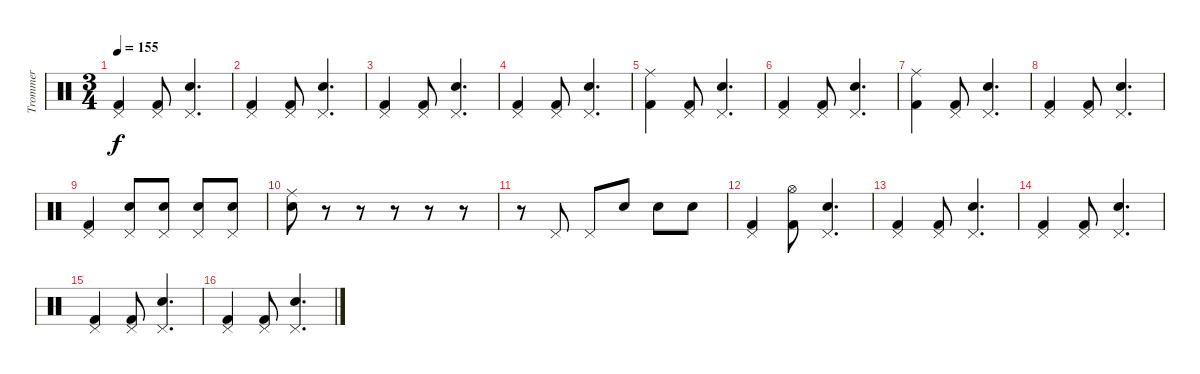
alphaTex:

\track ("Trommer" "Trommer") {instrument percussion}
\staff {score}
\articulation defaults
\ts (3 4)
\tempo 155
\clef neutral
\ks c
("Kick (hit) 2" "Pedal Hi-Hat (hit)").4{dy f} ("Kick (hit) 2" "Pedal Hi-Hat (hit)").8 ("Snare (hit) 2" "Pedal Hi-Hat (hit)").4{d} |
("Kick (hit) 2" "Pedal Hi-Hat (hit)").4 ("Kick (hit) 2" "Pedal Hi-Hat (hit)").8 ("Snare (hit) 2" "Pedal Hi-Hat (hit)").4{d} |
("Kick (hit) 2" "Pedal Hi-Hat (hit)").4 ("Kick (hit) 2" "Pedal Hi-Hat (hit)").8 ("Snare (hit) 2" "Pedal Hi-Hat (hit)").4{d} |
("Kick (hit) 2" "Pedal Hi-Hat (hit)").4 ("Kick (hit) 2" "Pedal Hi-Hat (hit)").8 ("Snare (hit) 2" "Pedal Hi-Hat (hit)").4{d} |
("Kick (hit) 2" "Ride (middle)").4 ("Kick (hit) 2" "Pedal Hi-Hat (hit)").8 ("Snare (hit) 2" "Pedal Hi-Hat (hit)").4{d} |
("Kick (hit) 2" "Pedal Hi-Hat (hit)").4 ("Kick (hit) 2" "Pedal Hi-Hat (hit)").8 ("Snare (hit) 2" "Pedal Hi-Hat (hit)").4{d} |
("Kick (hit) 2" "Ride (middle)").4 ("Kick (hit) 2" "Pedal Hi-Hat (hit)").8 ("Snare (hit) 2" "Pedal Hi-Hat (hit)").4{d} |
("Kick (hit) 2" "Pedal Hi-Hat (hit)").4 ("Kick (hit) 2" "Pedal Hi-Hat (hit)").8 ("Snare (hit) 2" "Pedal Hi-Hat (hit)").4{d} |
("Kick (hit) 2" "Pedal Hi-Hat (hit)").4 ("Snare (hit) 2" "Pedal Hi-Hat (hit)").8 ("Snare (hit) 2" "Pedal Hi-Hat (hit)").8 ("Snare (hit) 2" "Pedal Hi-Hat (hit)").8 ("Snare (hit) 2" "Pedal Hi-Hat (hit)").8 |
("Snare (hit) 2" "Ride (middle)").8 r.8 r.8 r.8 r.8 r.8 |
r.8 "Pedal Hi-Hat (hit)".8 "Pedal Hi-Hat (hit)".8 "Snare (hit) 2".8 "Snare (hit) 2".8 "Snare (hit) 2".8 |
("Kick (hit) 2" "Pedal Hi-Hat (hit)").4 ("Kick (hit) 2" "Hi-Hat (open)").8 ("Snare (hit) 2" "Pedal Hi-Hat (hit)").4{d} |
("Kick (hit) 2" "Pedal Hi-Hat (hit)").4 ("Kick (hit) 2" "Pedal Hi-Hat (hit)").8 ("Snare (hit) 2" "Pedal Hi-Hat (hit)").4{d} |
("Kick (hit) 2" "Pedal Hi-Hat (hit)").4 ("Kick (hit) 2" "Pedal Hi-Hat (hit)").8 ("Snare (hit) 2" "Pedal Hi-Hat (hit)").4{d} |
("Kick (hit) 2" "Pedal Hi-Hat (hit)").4 ("Kick (hit) 2" "Pedal Hi-Hat (hit)").8 ("Snare (hit) 2" "Pedal Hi-Hat (hit)").4{d} |
("Kick (hit) 2" "Pedal Hi-Hat (hit)").4 ("Kick (hit) 2" "Pedal Hi-Hat (hit)").8 ("Snare (hit) 2" "Pedal Hi-Hat (hit)").4{d}
